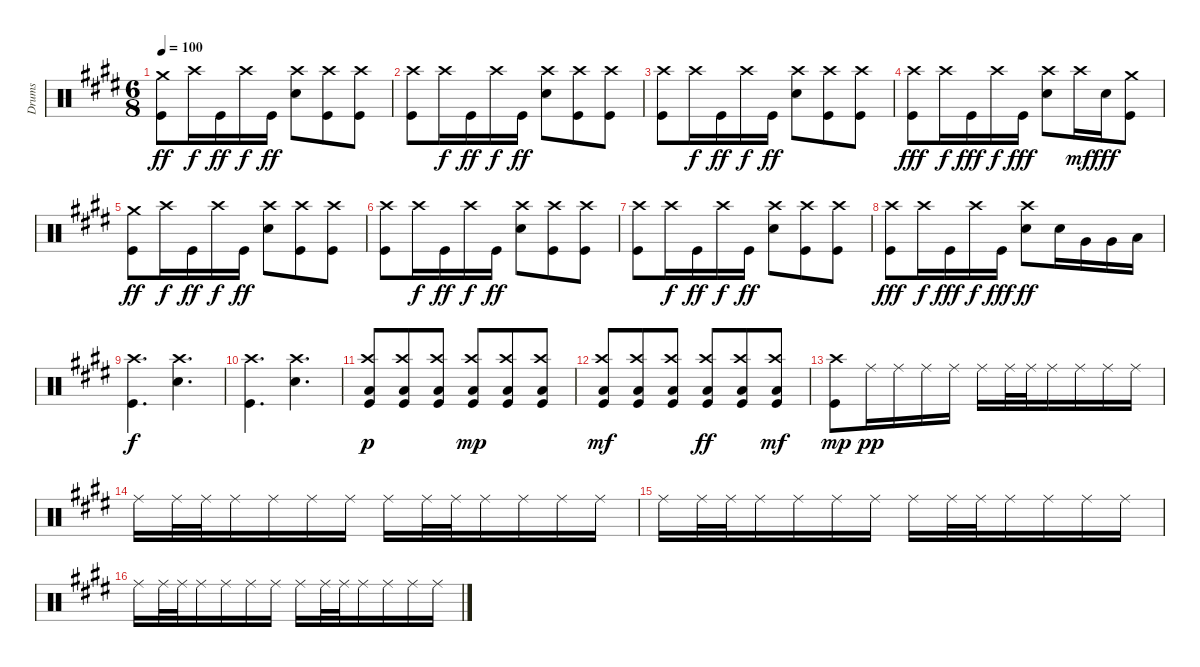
\track ("Drums" "Drums") {instrument percussion}
\staff {score}
\articulation defaults
\ts (6 8)
\tempo 100
\clef neutral
\ks c#minor
("Crash medium (hit)" "Kick (hit)").8{dy ff} "Crash high (hit)".16{dy f} "Kick (hit)".16{dy ff} "Crash high (hit)".16{dy f} "Kick (hit)".16{dy ff} ("Crash high (hit)" "Electric Snare (hit)").8 ("Crash high (hit)" "Kick (hit)").8 ("Crash high (hit)" "Kick (hit)").8 |
("Crash high (hit)" "Kick (hit)").8 "Crash high (hit)".16{dy f} "Kick (hit)".16{dy ff} "Crash high (hit)".16{dy f} "Kick (hit)".16{dy ff} ("Crash high (hit)" "Electric Snare (hit)").8 ("Crash high (hit)" "Kick (hit)").8 ("Crash high (hit)" "Kick (hit)").8 |
("Crash high (hit)" "Kick (hit)").8 "Crash high (hit)".16{dy f} "Kick (hit)".16{dy ff} "Crash high (hit)".16{dy f} "Kick (hit)".16{dy ff} ("Crash high (hit)" "Electric Snare (hit)").8 ("Crash high (hit)" "Kick (hit)").8 ("Crash high (hit)" "Kick (hit)").8 |
("Crash high (hit)" "Kick (hit)").8{dy fff} "Crash high (hit)".16{dy f} "Kick (hit)".16{dy fff} "Crash high (hit)".16{dy f} "Kick (hit)".16{dy fff} ("Crash high (hit)" "Electric Snare (hit)").8 "Crash high (hit)".16{dy mf} "Electric Snare (hit)".16{dy fff} ("Crash medium (hit)" "Kick (hit)").8 |
("Crash medium (hit)" "Kick (hit)").8{dy ff} "Crash high (hit)".16{dy f} "Kick (hit)".16{dy ff} "Crash high (hit)".16{dy f} "Kick (hit)".16{dy ff} ("Crash high (hit)" "Electric Snare (hit)").8 ("Crash high (hit)" "Kick (hit)").8 ("Crash high (hit)" "Kick (hit)").8 |
("Crash high (hit)" "Kick (hit)").8 "Crash high (hit)".16{dy f} "Kick (hit)".16{dy ff} "Crash high (hit)".16{dy f} "Kick (hit)".16{dy ff} ("Crash high (hit)" "Electric Snare (hit)").8 ("Crash high (hit)" "Kick (hit)").8 ("Crash high (hit)" "Kick (hit)").8 |
("Crash high (hit)" "Kick (hit)").8 "Crash high (hit)".16{dy f} "Kick (hit)".16{dy ff} "Crash high (hit)".16{dy f} "Kick (hit)".16{dy ff} ("Crash high (hit)" "Electric Snare (hit)").8 ("Crash high (hit)" "Kick (hit)").8 ("Crash high (hit)" "Kick (hit)").8 |
("Crash high (hit)" "Kick (hit)").8{dy fff} "Crash high (hit)".16{dy f} "Kick (hit)".16{dy fff} "Crash high (hit)".16{dy f} "Kick (hit)".16{dy fff} ("Crash high (hit)" "Electric Snare (hit)").8{dy ff} "Electric Snare (hit)".16 "Very Low Tom (hit)".16 "Very Low Tom (hit)".16 "Low Floor Tom (hit)".16 |
("Crash high (hit)" "Kick (hit)").4{d dy f} ("Crash high (hit)" "Electric Snare (hit)").4{d} |
("Crash high (hit)" "Kick (hit)").4{d} ("Crash high (hit)" "Electric Snare (hit)").4{d} |
("Crash high (hit)" "Kick (hit)" "Low Floor Tom (hit)").8{dy p} ("Crash high (hit)" "Kick (hit)" "Low Floor Tom (hit)").8 ("Crash high (hit)" "Kick (hit)" "Low Floor Tom (hit)").8 ("Crash high (hit)" "Kick (hit)" "Low Floor Tom (hit)").8{dy mp} ("Crash high (hit)" "Kick (hit)" "Low Floor Tom (hit)").8 ("Crash high (hit)" "Kick (hit)" "Low Floor Tom (hit)").8 |
("Crash high (hit)" "Kick (hit)" "Low Floor Tom (hit)").8{dy mf} ("Crash high (hit)" "Kick (hit)" "Low Floor Tom (hit)").8 ("Crash high (hit)" "Kick (hit)" "Low Floor Tom (hit)").8 ("Crash high (hit)" "Kick (hit)" "Low Floor Tom (hit)").8{dy ff} ("Crash high (hit)" "Kick (hit)" "Low Floor Tom (hit)").8 ("Crash high (hit)" "Kick (hit)" "Low Floor Tom (hit)").8{dy mf} |
("Kick (hit)" "Crash high (hit)").8{dy mp} "Ride (middle)".16{dy pp} "Ride (middle)".16 "Ride (middle)".16 "Ride (middle)".16 "Ride (middle)".16 "Ride (middle)".32 "Ride (middle)".32 "Ride (middle)".16 "Ride (middle)".16 "Ride (middle)".16 "Ride (middle)".16 |
"Ride (middle)".16 "Ride (middle)".32 "Ride (middle)".32 "Ride (middle)".16 "Ride (middle)".16 "Ride (middle)".16 "Ride (middle)".16 "Ride (middle)".16 "Ride (middle)".32 "Ride (middle)".32 "Ride (middle)".16 "Ride (middle)".16 "Ride (middle)".16 "Ride (middle)".16 |
"Ride (middle)".16 "Ride (middle)".32 "Ride (middle)".32 "Ride (middle)".16 "Ride (middle)".16 "Ride (middle)".16 "Ride (middle)".16 "Ride (middle)".16 "Ride (middle)".32 "Ride (middle)".32 "Ride (middle)".16 "Ride (middle)".16 "Ride (middle)".16 "Ride (middle)".16 |
"Ride (middle)".16 "Ride (middle)".32 "Ride (middle)".32 "Ride (middle)".16 "Ride (middle)".16 "Ride (middle)".16 "Ride (middle)".16 "Ride (middle)".16 "Ride (middle)".32 "Ride (middle)".32 "Ride (middle)".16 "Ride (middle)".16 "Ride (middle)".16 "Ride (middle)".16
